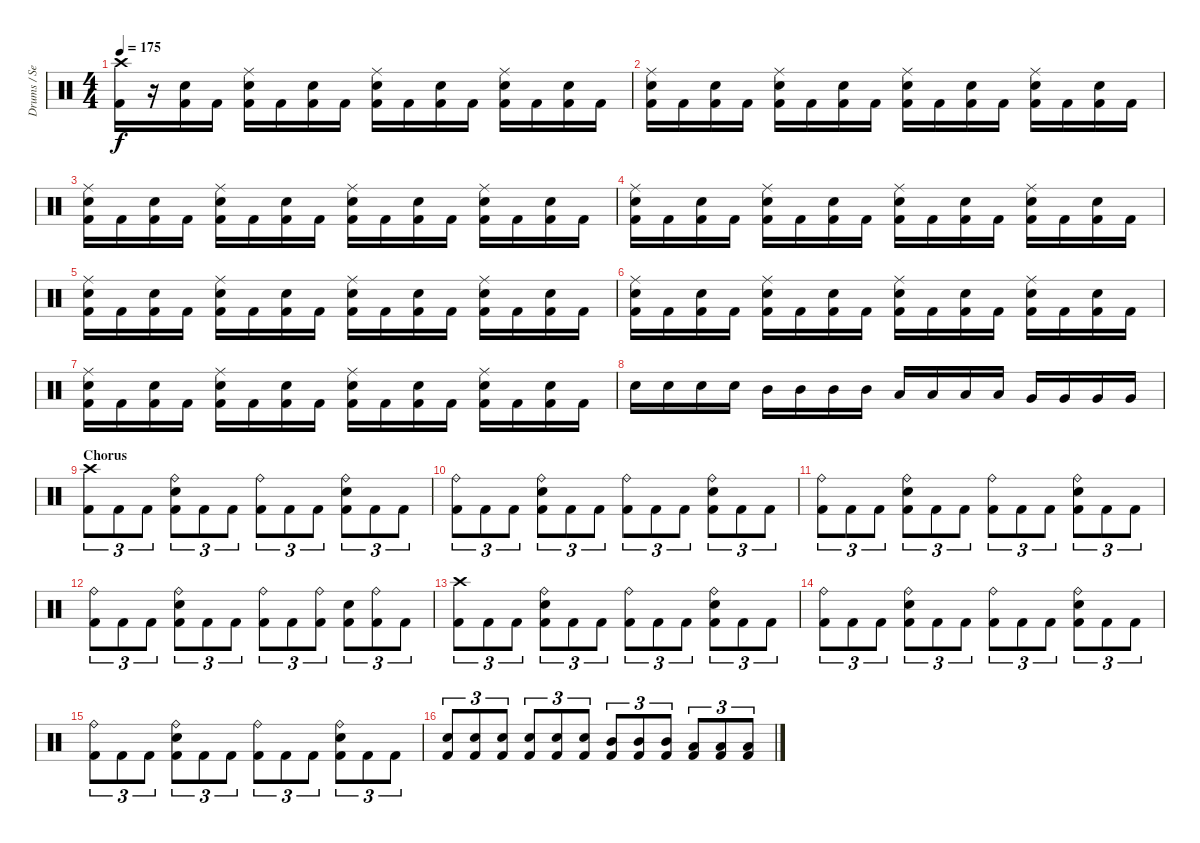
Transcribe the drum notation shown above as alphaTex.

\track ("Drums / Sean" "Drums / Se") {instrument percussion}
\staff {score}
\articulation defaults
\ts (4 4)
\tempo 175
\clef neutral
\ks c
("Crash high (hit)" "Kick (hit) 2").16{dy f} r.16 ("Electric Snare (hit)" "Kick (hit) 2").16 "Kick (hit) 2".16 ("Ride (middle)" "Electric Snare (hit)" "Kick (hit) 2").16 "Kick (hit) 2".16 ("Electric Snare (hit)" "Kick (hit) 2").16 "Kick (hit) 2".16 ("Ride (middle)" "Electric Snare (hit)" "Kick (hit) 2").16 "Kick (hit) 2".16 ("Electric Snare (hit)" "Kick (hit) 2").16 "Kick (hit) 2".16 ("Ride (middle)" "Electric Snare (hit)" "Kick (hit) 2").16 "Kick (hit) 2".16 ("Electric Snare (hit)" "Kick (hit) 2").16 "Kick (hit) 2".16 |
("Ride (middle)" "Electric Snare (hit)" "Kick (hit) 2").16 "Kick (hit) 2".16 ("Electric Snare (hit)" "Kick (hit) 2").16 "Kick (hit) 2".16 ("Ride (middle)" "Electric Snare (hit)" "Kick (hit) 2").16 "Kick (hit) 2".16 ("Electric Snare (hit)" "Kick (hit) 2").16 "Kick (hit) 2".16 ("Ride (middle)" "Electric Snare (hit)" "Kick (hit) 2").16 "Kick (hit) 2".16 ("Electric Snare (hit)" "Kick (hit) 2").16 "Kick (hit) 2".16 ("Ride (middle)" "Electric Snare (hit)" "Kick (hit) 2").16 "Kick (hit) 2".16 ("Electric Snare (hit)" "Kick (hit) 2").16 "Kick (hit) 2".16 |
("Ride (middle)" "Electric Snare (hit)" "Kick (hit) 2").16 "Kick (hit) 2".16 ("Electric Snare (hit)" "Kick (hit) 2").16 "Kick (hit) 2".16 ("Ride (middle)" "Electric Snare (hit)" "Kick (hit) 2").16 "Kick (hit) 2".16 ("Electric Snare (hit)" "Kick (hit) 2").16 "Kick (hit) 2".16 ("Ride (middle)" "Electric Snare (hit)" "Kick (hit) 2").16 "Kick (hit) 2".16 ("Electric Snare (hit)" "Kick (hit) 2").16 "Kick (hit) 2".16 ("Ride (middle)" "Electric Snare (hit)" "Kick (hit) 2").16 "Kick (hit) 2".16 ("Electric Snare (hit)" "Kick (hit) 2").16 "Kick (hit) 2".16 |
("Ride (middle)" "Electric Snare (hit)" "Kick (hit) 2").16 "Kick (hit) 2".16 ("Electric Snare (hit)" "Kick (hit) 2").16 "Kick (hit) 2".16 ("Ride (middle)" "Electric Snare (hit)" "Kick (hit) 2").16 "Kick (hit) 2".16 ("Electric Snare (hit)" "Kick (hit) 2").16 "Kick (hit) 2".16 ("Ride (middle)" "Electric Snare (hit)" "Kick (hit) 2").16 "Kick (hit) 2".16 ("Electric Snare (hit)" "Kick (hit) 2").16 "Kick (hit) 2".16 ("Ride (middle)" "Electric Snare (hit)" "Kick (hit) 2").16 "Kick (hit) 2".16 ("Electric Snare (hit)" "Kick (hit) 2").16 "Kick (hit) 2".16 |
("Ride (middle)" "Electric Snare (hit)" "Kick (hit) 2").16 "Kick (hit) 2".16 ("Electric Snare (hit)" "Kick (hit) 2").16 "Kick (hit) 2".16 ("Ride (middle)" "Electric Snare (hit)" "Kick (hit) 2").16 "Kick (hit) 2".16 ("Electric Snare (hit)" "Kick (hit) 2").16 "Kick (hit) 2".16 ("Ride (middle)" "Electric Snare (hit)" "Kick (hit) 2").16 "Kick (hit) 2".16 ("Electric Snare (hit)" "Kick (hit) 2").16 "Kick (hit) 2".16 ("Ride (middle)" "Electric Snare (hit)" "Kick (hit) 2").16 "Kick (hit) 2".16 ("Electric Snare (hit)" "Kick (hit) 2").16 "Kick (hit) 2".16 |
("Ride (middle)" "Electric Snare (hit)" "Kick (hit) 2").16 "Kick (hit) 2".16 ("Electric Snare (hit)" "Kick (hit) 2").16 "Kick (hit) 2".16 ("Ride (middle)" "Electric Snare (hit)" "Kick (hit) 2").16 "Kick (hit) 2".16 ("Electric Snare (hit)" "Kick (hit) 2").16 "Kick (hit) 2".16 ("Ride (middle)" "Electric Snare (hit)" "Kick (hit) 2").16 "Kick (hit) 2".16 ("Electric Snare (hit)" "Kick (hit) 2").16 "Kick (hit) 2".16 ("Ride (middle)" "Electric Snare (hit)" "Kick (hit) 2").16 "Kick (hit) 2".16 ("Electric Snare (hit)" "Kick (hit) 2").16 "Kick (hit) 2".16 |
("Ride (middle)" "Electric Snare (hit)" "Kick (hit) 2").16 "Kick (hit) 2".16 ("Electric Snare (hit)" "Kick (hit) 2").16 "Kick (hit) 2".16 ("Ride (middle)" "Electric Snare (hit)" "Kick (hit) 2").16 "Kick (hit) 2".16 ("Electric Snare (hit)" "Kick (hit) 2").16 "Kick (hit) 2".16 ("Ride (middle)" "Electric Snare (hit)" "Kick (hit) 2").16 "Kick (hit) 2".16 ("Electric Snare (hit)" "Kick (hit) 2").16 "Kick (hit) 2".16 ("Ride (middle)" "Electric Snare (hit)" "Kick (hit) 2").16 "Kick (hit) 2".16 ("Electric Snare (hit)" "Kick (hit) 2").16 "Kick (hit) 2".16 |
"Electric Snare (hit)".16 "Electric Snare (hit)".16 "Electric Snare (hit)".16 "Electric Snare (hit)".16 "Mid Tom (hit)".16 "Mid Tom (hit)".16 "Mid Tom (hit)".16 "Mid Tom (hit)".16 "Low Tom (hit)".16 "Low Tom (hit)".16 "Low Tom (hit)".16 "Low Tom (hit)".16 "Very Low Tom (hit)".16 "Very Low Tom (hit)".16 "Very Low Tom (hit)".16 "Very Low Tom (hit)".16 |
\section ("" "Chorus")
("Crash high (hit)" "Kick (hit) 2").8{tu (3 2)} "Kick (hit) 2".8{tu (3 2)} "Kick (hit) 2".8{tu (3 2)} ("Ride (bell)" "Electric Snare (hit)" "Kick (hit) 2").8{tu (3 2)} "Kick (hit) 2".8{tu (3 2)} "Kick (hit) 2".8{tu (3 2)} ("Ride (bell)" "Kick (hit) 2").8{tu (3 2)} "Kick (hit) 2".8{tu (3 2)} "Kick (hit) 2".8{tu (3 2)} ("Ride (bell)" "Electric Snare (hit)" "Kick (hit) 2").8{tu (3 2)} "Kick (hit) 2".8{tu (3 2)} "Kick (hit) 2".8{tu (3 2)} |
("Ride (bell)" "Kick (hit) 2").8{tu (3 2)} "Kick (hit) 2".8{tu (3 2)} "Kick (hit) 2".8{tu (3 2)} ("Ride (bell)" "Electric Snare (hit)" "Kick (hit) 2").8{tu (3 2)} "Kick (hit) 2".8{tu (3 2)} "Kick (hit) 2".8{tu (3 2)} ("Ride (bell)" "Kick (hit) 2").8{tu (3 2)} "Kick (hit) 2".8{tu (3 2)} "Kick (hit) 2".8{tu (3 2)} ("Ride (bell)" "Electric Snare (hit)" "Kick (hit) 2").8{tu (3 2)} "Kick (hit) 2".8{tu (3 2)} "Kick (hit) 2".8{tu (3 2)} |
("Ride (bell)" "Kick (hit) 2").8{tu (3 2)} "Kick (hit) 2".8{tu (3 2)} "Kick (hit) 2".8{tu (3 2)} ("Ride (bell)" "Electric Snare (hit)" "Kick (hit) 2").8{tu (3 2)} "Kick (hit) 2".8{tu (3 2)} "Kick (hit) 2".8{tu (3 2)} ("Ride (bell)" "Kick (hit) 2").8{tu (3 2)} "Kick (hit) 2".8{tu (3 2)} "Kick (hit) 2".8{tu (3 2)} ("Ride (bell)" "Electric Snare (hit)" "Kick (hit) 2").8{tu (3 2)} "Kick (hit) 2".8{tu (3 2)} "Kick (hit) 2".8{tu (3 2)} |
("Ride (bell)" "Kick (hit) 2").8{tu (3 2)} "Kick (hit) 2".8{tu (3 2)} "Kick (hit) 2".8{tu (3 2)} ("Ride (bell)" "Electric Snare (hit)" "Kick (hit) 2").8{tu (3 2)} "Kick (hit) 2".8{tu (3 2)} "Kick (hit) 2".8{tu (3 2)} ("Ride (bell)" "Kick (hit) 2").8{tu (3 2)} "Kick (hit) 2".8{tu (3 2)} ("Ride (bell)" "Kick (hit) 2").8{tu (3 2)} ("Electric Snare (hit)" "Kick (hit) 2").8{tu (3 2)} ("Ride (bell)" "Kick (hit) 2").8{tu (3 2)} "Kick (hit) 2".8{tu (3 2)} |
("Crash high (hit)" "Kick (hit) 2").8{tu (3 2)} "Kick (hit) 2".8{tu (3 2)} "Kick (hit) 2".8{tu (3 2)} ("Ride (bell)" "Electric Snare (hit)" "Kick (hit) 2").8{tu (3 2)} "Kick (hit) 2".8{tu (3 2)} "Kick (hit) 2".8{tu (3 2)} ("Ride (bell)" "Kick (hit) 2").8{tu (3 2)} "Kick (hit) 2".8{tu (3 2)} "Kick (hit) 2".8{tu (3 2)} ("Ride (bell)" "Electric Snare (hit)" "Kick (hit) 2").8{tu (3 2)} "Kick (hit) 2".8{tu (3 2)} "Kick (hit) 2".8{tu (3 2)} |
("Ride (bell)" "Kick (hit) 2").8{tu (3 2)} "Kick (hit) 2".8{tu (3 2)} "Kick (hit) 2".8{tu (3 2)} ("Ride (bell)" "Electric Snare (hit)" "Kick (hit) 2").8{tu (3 2)} "Kick (hit) 2".8{tu (3 2)} "Kick (hit) 2".8{tu (3 2)} ("Ride (bell)" "Kick (hit) 2").8{tu (3 2)} "Kick (hit) 2".8{tu (3 2)} "Kick (hit) 2".8{tu (3 2)} ("Ride (bell)" "Electric Snare (hit)" "Kick (hit) 2").8{tu (3 2)} "Kick (hit) 2".8{tu (3 2)} "Kick (hit) 2".8{tu (3 2)} |
("Ride (bell)" "Kick (hit) 2").8{tu (3 2)} "Kick (hit) 2".8{tu (3 2)} "Kick (hit) 2".8{tu (3 2)} ("Ride (bell)" "Electric Snare (hit)" "Kick (hit) 2").8{tu (3 2)} "Kick (hit) 2".8{tu (3 2)} "Kick (hit) 2".8{tu (3 2)} ("Ride (bell)" "Kick (hit) 2").8{tu (3 2)} "Kick (hit) 2".8{tu (3 2)} "Kick (hit) 2".8{tu (3 2)} ("Ride (bell)" "Electric Snare (hit)" "Kick (hit) 2").8{tu (3 2)} "Kick (hit) 2".8{tu (3 2)} "Kick (hit) 2".8{tu (3 2)} |
("Electric Snare (hit)" "Kick (hit) 2").8{tu (3 2)} ("Electric Snare (hit)" "Kick (hit) 2").8{tu (3 2)} ("Electric Snare (hit)" "Kick (hit) 2").8{tu (3 2)} ("Electric Snare (hit)" "Kick (hit) 2").8{tu (3 2)} ("Electric Snare (hit)" "Kick (hit) 2").8{tu (3 2)} ("Electric Snare (hit)" "Kick (hit) 2").8{tu (3 2)} ("Mid Tom (hit)" "Kick (hit) 2").8{tu (3 2)} ("Mid Tom (hit)" "Kick (hit) 2").8{tu (3 2)} ("Mid Tom (hit)" "Kick (hit) 2").8{tu (3 2)} ("Low Tom (hit)" "Kick (hit) 2").8{tu (3 2)} ("Low Tom (hit)" "Kick (hit) 2").8{tu (3 2)} ("Low Tom (hit)" "Kick (hit) 2").8{tu (3 2)}
